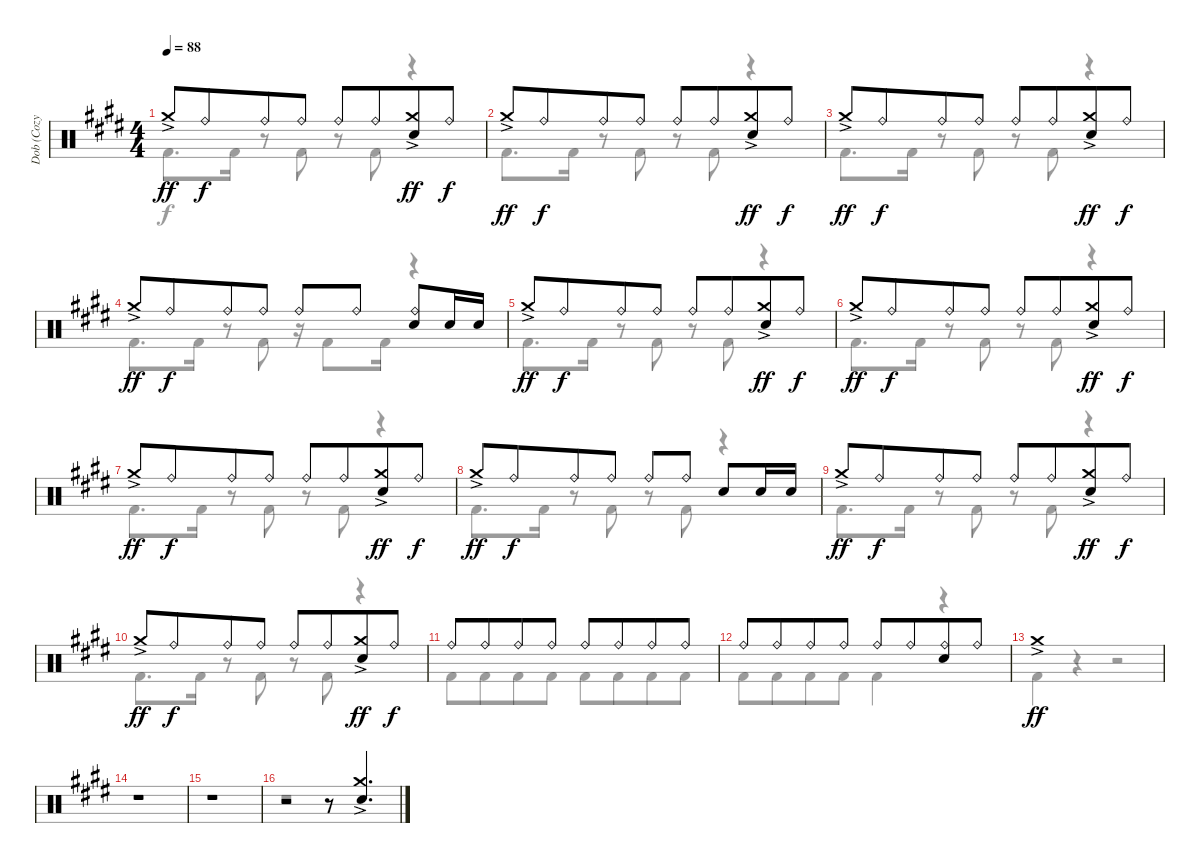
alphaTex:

\track ("Dob (Cozy Powell)" "Dob (Cozy ") {instrument percussion}
\staff {score}
\articulation defaults
\voice
\ts (4 4)
\tempo 88
\clef neutral
\ks e "Crash medium (hit)"{ac}.8{dy ff} "Ride (bell)".8{dy f beam merge} "Ride (bell)".8 "Ride (bell)".8 "Ride (bell)".8 "Ride (bell)".8{beam merge}
("Crash medium (hit)"{ac} "Electric Snare (hit)").8{dy ff} "Ride (bell)".8{dy f} |
"Crash medium (hit)"{ac}.8{dy ff} "Ride (bell)".8{dy f beam merge} "Ride (bell)".8 "Ride (bell)".8 "Ride (bell)".8 "Ride (bell)".8{beam merge} ("Crash medium (hit)"{ac} "Electric Snare (hit)").8{dy ff} "Ride (bell)".8{dy f} |
"Crash medium (hit)"{ac}.8{dy ff} "Ride (bell)".8{dy f beam merge} "Ride (bell)".8 "Ride (bell)".8 "Ride (bell)".8 "Ride (bell)".8{beam merge} ("Crash medium (hit)"{ac} "Electric Snare (hit)").8{dy ff} "Ride (bell)".8{dy f} |
"Crash medium (hit)"{ac}.8{dy ff} "Ride (bell)".8{dy f beam merge} "Ride (bell)".8 "Ride (bell)".8 "Ride (bell)".8 "Ride (bell)".8 ("Ride (bell)" "Electric Snare (hit)").8 "Electric Snare (hit)".16 "Electric Snare (hit)".16 |
"Crash medium (hit)"{ac}.8{dy ff} "Ride (bell)".8{dy f beam merge} "Ride (bell)".8 "Ride (bell)".8 "Ride (bell)".8 "Ride (bell)".8{beam merge} ("Crash medium (hit)"{ac} "Electric Snare (hit)").8{dy ff} "Ride (bell)".8{dy f} |
"Crash medium (hit)"{ac}.8{dy ff} "Ride (bell)".8{dy f beam merge} "Ride (bell)".8 "Ride (bell)".8 "Ride (bell)".8 "Ride (bell)".8{beam merge} ("Crash medium (hit)"{ac} "Electric Snare (hit)").8{dy ff} "Ride (bell)".8{dy f} |
"Crash medium (hit)"{ac}.8{dy ff} "Ride (bell)".8{dy f beam merge} "Ride (bell)".8 "Ride (bell)".8 "Ride (bell)".8 "Ride (bell)".8{beam merge} ("Crash medium (hit)"{ac} "Electric Snare (hit)").8{dy ff} "Ride (bell)".8{dy f} |
"Crash medium (hit)"{ac}.8{dy ff} "Ride (bell)".8{dy f beam merge} "Ride (bell)".8 "Ride (bell)".8 "Ride (bell)".8 "Ride (bell)".8 "Electric Snare (hit)".8 "Electric Snare (hit)".16 "Electric Snare (hit)".16 |
"Crash medium (hit)"{ac}.8{dy ff} "Ride (bell)".8{dy f beam merge} "Ride (bell)".8 "Ride (bell)".8 "Ride (bell)".8 "Ride (bell)".8{beam merge} ("Crash medium (hit)"{ac} "Electric Snare (hit)").8{dy ff} "Ride (bell)".8{dy f} |
"Crash medium (hit)"{ac}.8{dy ff} "Ride (bell)".8{dy f beam merge} "Ride (bell)".8 "Ride (bell)".8 "Ride (bell)".8 "Ride (bell)".8{beam merge} ("Crash medium (hit)"{ac} "Electric Snare (hit)").8{dy ff} "Ride (bell)".8{dy f} |
"Ride (bell)".8 "Ride (bell)".8{beam merge} "Ride (bell)".8 "Ride (bell)".8 "Ride (bell)".8 "Ride (bell)".8{beam merge} "Ride (bell)".8 "Ride (bell)".8 |
"Ride (bell)".8 "Ride (bell)".8{beam merge} "Ride (bell)".8 "Ride (bell)".8 "Ride (bell)".8 "Ride (bell)".8{beam merge} ("Ride (bell)" "Electric Snare (hit)").8 "Ride (bell)".8 |
"Crash medium (hit)"{ac}.1{dy ff} |
r.1 |
r.1 |
r.2 r.8 ("Crash medium (hit)"{ac} "Electric Snare (hit)").4{d}
\voice
\clef neutral
\ottava regular
\simile none
\ks e "Kick (hit) 2".8{d dy f} "Kick (hit) 2".16
r.8 "Kick (hit) 2".8 r.8 "Kick (hit) 2".8 r.4 |
"Kick (hit) 2".8{d} "Kick (hit) 2".16 r.8 "Kick (hit) 2".8 r.8 "Kick (hit) 2".8 r.4 |
"Kick (hit) 2".8{d} "Kick (hit) 2".16 r.8 "Kick (hit) 2".8 r.8 "Kick (hit) 2".8 r.4 |
"Kick (hit) 2".8{d} "Kick (hit) 2".16 r.8 "Kick (hit) 2".8 r.16 "Kick (hit) 2".8 "Kick (hit) 2".16 r.4 |
"Kick (hit) 2".8{d} "Kick (hit) 2".16 r.8 "Kick (hit) 2".8 r.8 "Kick (hit) 2".8 r.4 |
"Kick (hit) 2".8{d} "Kick (hit) 2".16 r.8 "Kick (hit) 2".8 r.8 "Kick (hit) 2".8 r.4 |
"Kick (hit) 2".8{d} "Kick (hit) 2".16 r.8 "Kick (hit) 2".8 r.8 "Kick (hit) 2".8 r.4 |
"Kick (hit) 2".8{d} "Kick (hit) 2".16 r.8 "Kick (hit) 2".8 r.8 "Kick (hit) 2".8 r.4 |
"Kick (hit) 2".8{d} "Kick (hit) 2".16 r.8 "Kick (hit) 2".8 r.8 "Kick (hit) 2".8 r.4 |
"Kick (hit) 2".8{d} "Kick (hit) 2".16 r.8 "Kick (hit) 2".8 r.8 "Kick (hit) 2".8 r.4 |
"Kick (hit) 2".8 "Kick (hit) 2".8{beam merge} "Kick (hit) 2".8 "Kick (hit) 2".8 "Kick (hit) 2".8 "Kick (hit) 2".8{beam merge} "Kick (hit) 2".8 "Kick (hit) 2".8 |
"Kick (hit) 2".8 "Kick (hit) 2".8{beam merge} "Kick (hit) 2".8 "Kick (hit) 2".8 "Kick (hit) 2".4 r.4 |
"Kick (hit) 2".4 r.4 r.2 |
r.1 |
r.1 |
r.1
